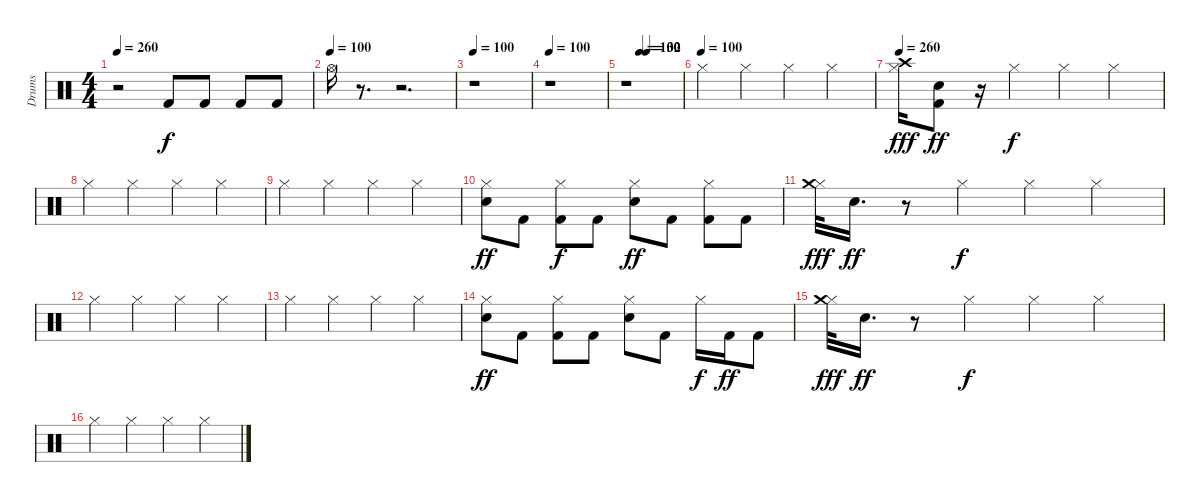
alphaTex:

\track ("Drums" "Drums") {instrument percussion}
\staff {score}
\articulation defaults
\ts (4 4)
\tempo 260
\tempo 100
\tempo 260
\clef neutral
\ks c
r.2{dy f} "Kick (hit) 2".8 "Kick (hit) 2".8 "Kick (hit) 2".8 "Kick (hit) 2".8 |
\tempo (100)
"Hi-Hat (open)".16 r.8{d} r.2{d} |
\tempo 100
r.1 |
\tempo 100
r.1 |
\tempo (100 0.25)
\tempo (32 0.375)
r.1 |
\tempo (100)
"Hi-Hat (closed)".4 "Hi-Hat (closed)".4 "Hi-Hat (closed)".4 "Hi-Hat (closed)".4 |
\tempo 260
("Hi-Hat (closed)" "Crash high (hit)").16{dy fff} ("Kick (hit) 2" "Snare (hit) 2").8{dy ff} r.16 "Hi-Hat (closed)".4{dy f} "Hi-Hat (closed)".4 "Hi-Hat (closed)".4 |
"Hi-Hat (closed)".4 "Hi-Hat (closed)".4 "Hi-Hat (closed)".4 "Hi-Hat (closed)".4 |
"Hi-Hat (closed)".4 "Hi-Hat (closed)".4 "Hi-Hat (closed)".4 "Hi-Hat (closed)".4 |
("Hi-Hat (closed)" "Snare (hit) 2").8{dy ff} "Kick (hit) 2".8 ("Hi-Hat (closed)" "Kick (hit) 2").8{dy f} "Kick (hit) 2".8 ("Hi-Hat (closed)" "Snare (hit) 2").8{dy ff} "Kick (hit) 2".8 ("Hi-Hat (closed)" "Kick (hit) 2").8 "Kick (hit) 2".8 |
("Hi-Hat (closed)" "Crash medium (hit)").32{dy fff} "Snare (hit) 2".16{d dy ff} r.8 "Hi-Hat (closed)".4{dy f} "Hi-Hat (closed)".4 "Hi-Hat (closed)".4 |
"Hi-Hat (closed)".4 "Hi-Hat (closed)".4 "Hi-Hat (closed)".4 "Hi-Hat (closed)".4 |
"Hi-Hat (closed)".4 "Hi-Hat (closed)".4 "Hi-Hat (closed)".4 "Hi-Hat (closed)".4 |
("Hi-Hat (closed)" "Snare (hit) 2").8{dy ff} "Kick (hit) 2".8 ("Kick (hit) 2" "Hi-Hat (closed)").8 "Kick (hit) 2".8 ("Hi-Hat (closed)" "Snare (hit) 2").8 "Kick (hit) 2".8 "Hi-Hat (closed)".16{dy f} "Kick (hit) 2".16{dy ff} "Kick (hit) 2".8 |
("Hi-Hat (closed)" "Crash medium (hit)").32{dy fff} "Snare (hit) 2".16{d dy ff} r.8 "Hi-Hat (closed)".4{dy f} "Hi-Hat (closed)".4 "Hi-Hat (closed)".4 |
"Hi-Hat (closed)".4 "Hi-Hat (closed)".4 "Hi-Hat (closed)".4 "Hi-Hat (closed)".4
